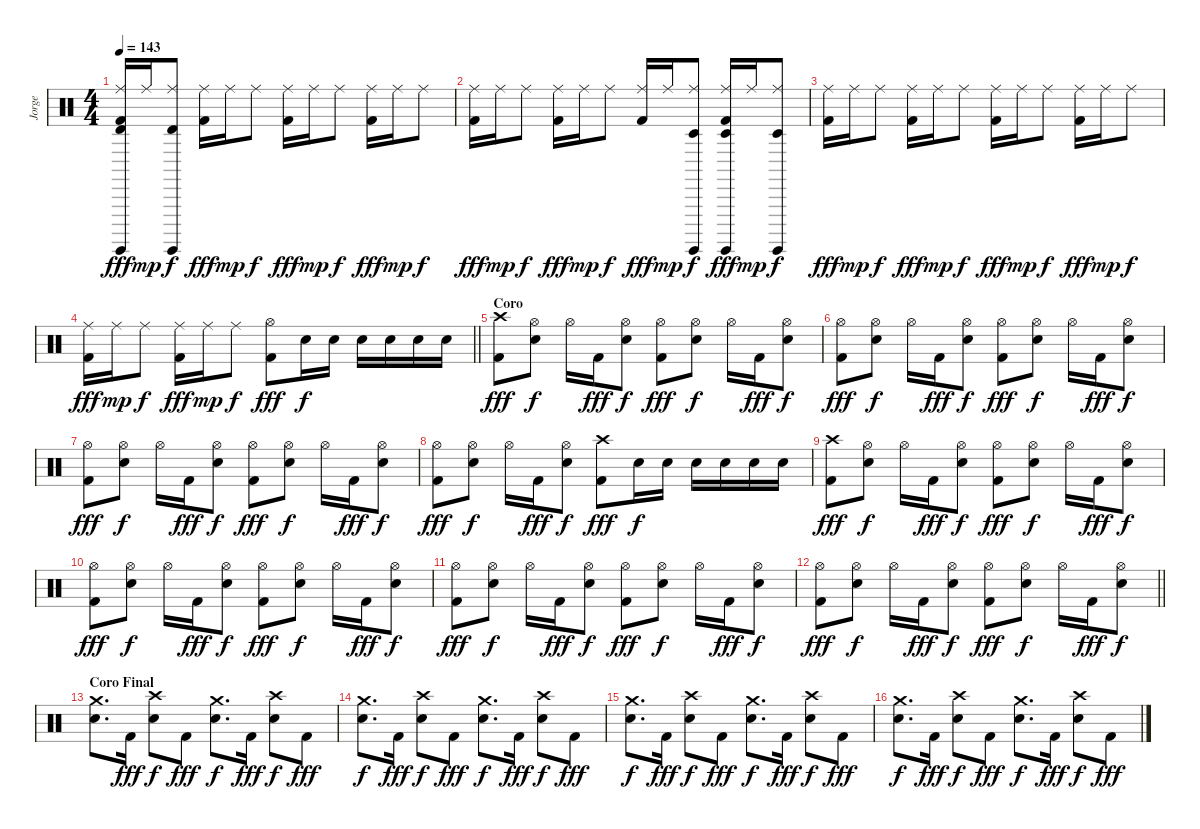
\track ("Jorge" "Jorge") {instrument percussion}
\staff {score}
\articulation defaults
\ts (4 4)
\tempo 143
\clef neutral
\ks c
("Surdo (hit)" "Timbale high (hit)" "Ride (middle)" "Kick (hit) 2").16{dy fff} "Ride (middle)".16{dy mp} ("Surdo (hit)" "Timbale high (hit)" "Ride (middle)").8{dy f} ("Ride (middle)" "Kick (hit) 2").16{dy fff} "Ride (middle)".16{dy mp} "Ride (middle)".8{dy f} ("Ride (middle)" "Kick (hit) 2").16{dy fff} "Ride (middle)".16{dy mp} "Ride (middle)".8{dy f} ("Ride (middle)" "Kick (hit) 2").16{dy fff} "Ride (middle)".16{dy mp} "Ride (middle)".8{dy f} |
("Ride (middle)" "Kick (hit) 2").16{dy fff} "Ride (middle)".16{dy mp} "Ride (middle)".8{dy f} ("Ride (middle)" "Kick (hit) 2").16{dy fff} "Ride (middle)".16{dy mp} "Ride (middle)".8{dy f} ("Ride (middle)" "Kick (hit) 2").16{dy fff} "Ride (middle)".16{dy mp} ("Surdo (hit)" "Timbale low (hit)" "Ride (middle)").8{dy f} ("Surdo (hit)" "Timbale low (hit)" "Ride (middle)" "Kick (hit) 2").16{dy fff} "Ride (middle)".16{dy mp} ("Surdo (hit)" "Timbale low (hit)" "Ride (middle)").8{dy f} |
("Ride (middle)" "Kick (hit) 2").16{dy fff} "Ride (middle)".16{dy mp} "Ride (middle)".8{dy f} ("Ride (middle)" "Kick (hit) 2").16{dy fff} "Ride (middle)".16{dy mp} "Ride (middle)".8{dy f} ("Ride (middle)" "Kick (hit) 2").16{dy fff} "Ride (middle)".16{dy mp} "Ride (middle)".8{dy f} ("Ride (middle)" "Kick (hit) 2").16{dy fff} "Ride (middle)".16{dy mp} "Ride (middle)".8{dy f} |
\barLineRight lightlight
("Ride (middle)" "Kick (hit) 2").16{dy fff} "Ride (middle)".16{dy mp} "Ride (middle)".8{dy f} ("Ride (middle)" "Kick (hit) 2").16{dy fff} "Ride (middle)".16{dy mp} "Ride (middle)".8{dy f} ("Hi-Hat (open)" "Kick (hit) 2").8{dy fff} "Electric Snare (hit)".16{dy f} "Electric Snare (hit)".16 "Electric Snare (hit)".16 "Electric Snare (hit)".16 "Electric Snare (hit)".16 "Electric Snare (hit)".16 |
\section ("" "Coro")
("Crash high (hit)" "Kick (hit) 2").8{dy fff} ("Hi-Hat (open)" "Electric Snare (hit)").8{dy f} "Hi-Hat (open)".16 "Kick (hit) 2".16{dy fff} ("Hi-Hat (open)" "Electric Snare (hit)").8{dy f} ("Hi-Hat (open)" "Kick (hit) 2").8{dy fff} ("Hi-Hat (open)" "Electric Snare (hit)").8{dy f} "Hi-Hat (open)".16 "Kick (hit) 2".16{dy fff} ("Hi-Hat (open)" "Electric Snare (hit)").8{dy f} |
("Hi-Hat (open)" "Kick (hit) 2").8{dy fff} ("Hi-Hat (open)" "Electric Snare (hit)").8{dy f} "Hi-Hat (open)".16 "Kick (hit) 2".16{dy fff} ("Hi-Hat (open)" "Electric Snare (hit)").8{dy f} ("Hi-Hat (open)" "Kick (hit) 2").8{dy fff} ("Hi-Hat (open)" "Electric Snare (hit)").8{dy f} "Hi-Hat (open)".16 "Kick (hit) 2".16{dy fff} ("Hi-Hat (open)" "Electric Snare (hit)").8{dy f} |
("Hi-Hat (open)" "Kick (hit) 2").8{dy fff} ("Hi-Hat (open)" "Electric Snare (hit)").8{dy f} "Hi-Hat (open)".16 "Kick (hit) 2".16{dy fff} ("Hi-Hat (open)" "Electric Snare (hit)").8{dy f} ("Hi-Hat (open)" "Kick (hit) 2").8{dy fff} ("Hi-Hat (open)" "Electric Snare (hit)").8{dy f} "Hi-Hat (open)".16 "Kick (hit) 2".16{dy fff} ("Hi-Hat (open)" "Electric Snare (hit)").8{dy f} |
("Hi-Hat (open)" "Kick (hit) 2").8{dy fff} ("Hi-Hat (open)" "Electric Snare (hit)").8{dy f} "Hi-Hat (open)".16 "Kick (hit) 2".16{dy fff} ("Hi-Hat (open)" "Electric Snare (hit)").8{dy f} ("Crash high (hit)" "Kick (hit) 2").8{dy fff} "Electric Snare (hit)".16{dy f} "Electric Snare (hit)".16 "Electric Snare (hit)".16 "Electric Snare (hit)".16 "Electric Snare (hit)".16 "Electric Snare (hit)".16 |
("Crash high (hit)" "Kick (hit) 2").8{dy fff} ("Hi-Hat (open)" "Electric Snare (hit)").8{dy f} "Hi-Hat (open)".16 "Kick (hit) 2".16{dy fff} ("Hi-Hat (open)" "Electric Snare (hit)").8{dy f} ("Hi-Hat (open)" "Kick (hit) 2").8{dy fff} ("Hi-Hat (open)" "Electric Snare (hit)").8{dy f} "Hi-Hat (open)".16 "Kick (hit) 2".16{dy fff} ("Hi-Hat (open)" "Electric Snare (hit)").8{dy f} |
("Hi-Hat (open)" "Kick (hit) 2").8{dy fff} ("Hi-Hat (open)" "Electric Snare (hit)").8{dy f} "Hi-Hat (open)".16 "Kick (hit) 2".16{dy fff} ("Hi-Hat (open)" "Electric Snare (hit)").8{dy f} ("Hi-Hat (open)" "Kick (hit) 2").8{dy fff} ("Hi-Hat (open)" "Electric Snare (hit)").8{dy f} "Hi-Hat (open)".16 "Kick (hit) 2".16{dy fff} ("Hi-Hat (open)" "Electric Snare (hit)").8{dy f} |
("Hi-Hat (open)" "Kick (hit) 2").8{dy fff} ("Hi-Hat (open)" "Electric Snare (hit)").8{dy f} "Hi-Hat (open)".16 "Kick (hit) 2".16{dy fff} ("Hi-Hat (open)" "Electric Snare (hit)").8{dy f} ("Hi-Hat (open)" "Kick (hit) 2").8{dy fff} ("Hi-Hat (open)" "Electric Snare (hit)").8{dy f} "Hi-Hat (open)".16 "Kick (hit) 2".16{dy fff} ("Hi-Hat (open)" "Electric Snare (hit)").8{dy f} |
\barLineRight lightlight
("Hi-Hat (open)" "Kick (hit) 2").8{dy fff} ("Hi-Hat (open)" "Electric Snare (hit)").8{dy f} "Hi-Hat (open)".16 "Kick (hit) 2".16{dy fff} ("Hi-Hat (open)" "Electric Snare (hit)").8{dy f} ("Hi-Hat (open)" "Kick (hit) 2").8{dy fff} ("Hi-Hat (open)" "Electric Snare (hit)").8{dy f} "Hi-Hat (open)".16 "Kick (hit) 2".16{dy fff} ("Hi-Hat (open)" "Electric Snare (hit)").8{dy f} |
\section ("" "Coro Final")
("Crash medium (hit)" "Electric Snare (hit)").8{d} "Kick (hit) 2".16{dy fff} ("Crash high (hit)" "Electric Snare (hit)").8{dy f} "Kick (hit) 2".8{dy fff} ("Crash medium (hit)" "Electric Snare (hit)").8{d dy f} "Kick (hit) 2".16{dy fff} ("Crash high (hit)" "Electric Snare (hit)").8{dy f} "Kick (hit) 2".8{dy fff} |
("Crash medium (hit)" "Electric Snare (hit)").8{d dy f} "Kick (hit) 2".16{dy fff} ("Crash high (hit)" "Electric Snare (hit)").8{dy f} "Kick (hit) 2".8{dy fff} ("Crash medium (hit)" "Electric Snare (hit)").8{d dy f} "Kick (hit) 2".16{dy fff} ("Crash high (hit)" "Electric Snare (hit)").8{dy f} "Kick (hit) 2".8{dy fff} |
("Crash medium (hit)" "Electric Snare (hit)").8{d dy f} "Kick (hit) 2".16{dy fff} ("Crash high (hit)" "Electric Snare (hit)").8{dy f} "Kick (hit) 2".8{dy fff} ("Crash medium (hit)" "Electric Snare (hit)").8{d dy f} "Kick (hit) 2".16{dy fff} ("Crash high (hit)" "Electric Snare (hit)").8{dy f} "Kick (hit) 2".8{dy fff} |
("Crash medium (hit)" "Electric Snare (hit)").8{d dy f} "Kick (hit) 2".16{dy fff} ("Crash high (hit)" "Electric Snare (hit)").8{dy f} "Kick (hit) 2".8{dy fff} ("Crash medium (hit)" "Electric Snare (hit)").8{d dy f} "Kick (hit) 2".16{dy fff} ("Crash high (hit)" "Electric Snare (hit)").8{dy f} "Kick (hit) 2".8{dy fff}
